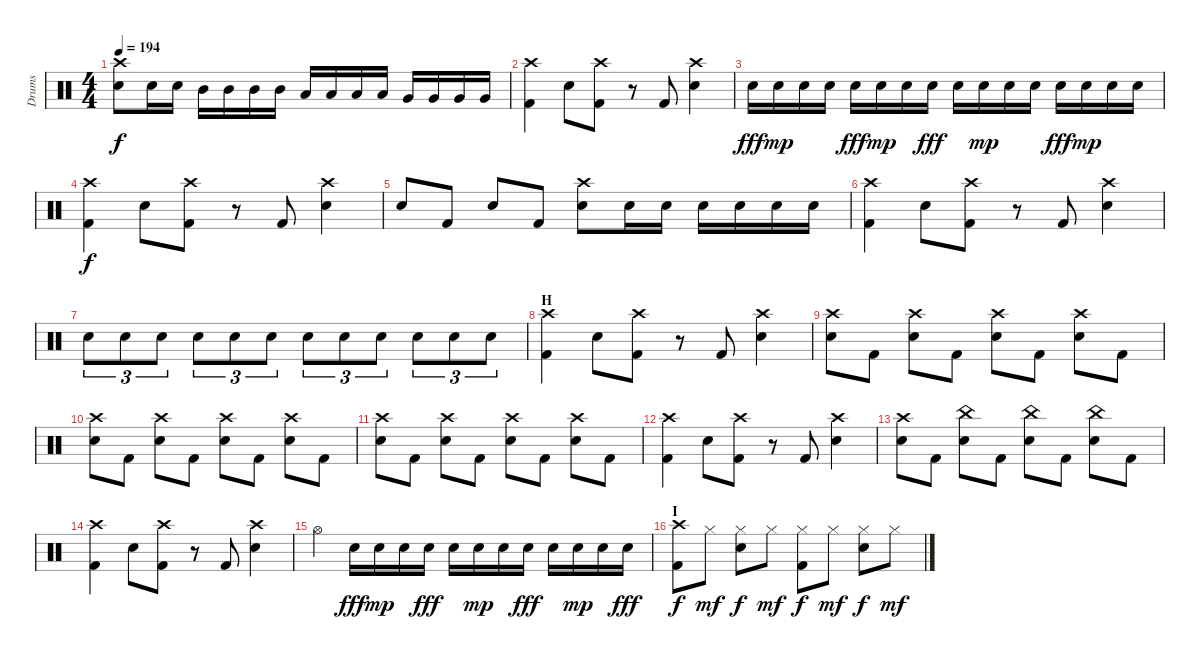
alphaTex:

\track ("Drums" "Drums") {instrument percussion}
\staff {score}
\articulation defaults
\ts (4 4)
\tempo 194
\clef neutral
\ks c
("Crash high (hit)" "Electric Snare (hit)").8{dy f} "Electric Snare (hit)".16 "Electric Snare (hit)".16 "Mid Tom (hit)".16 "Mid Tom (hit)".16 "Mid Tom (hit)".16 "Mid Tom (hit)".16 "Low Tom (hit)".16 "Low Tom (hit)".16 "Low Tom (hit)".16 "Low Tom (hit)".16 "Very Low Tom (hit)".16 "Very Low Tom (hit)".16 "Very Low Tom (hit)".16 "Very Low Tom (hit)".16 |
("Crash high (hit)" "Kick (hit) 2").4 "Electric Snare (hit)".8 ("Crash high (hit)" "Kick (hit) 2").8 r.8 "Kick (hit) 2".8 ("Crash high (hit)" "Electric Snare (hit)").4 |
"Electric Snare (hit)".16{dy fff} "Electric Snare (hit)".16{dy mp} "Electric Snare (hit)".16 "Electric Snare (hit)".16 "Electric Snare (hit)".16{dy fff} "Electric Snare (hit)".16{dy mp} "Electric Snare (hit)".16 "Electric Snare (hit)".16{dy fff} "Electric Snare (hit)".16 "Electric Snare (hit)".16{dy mp} "Electric Snare (hit)".16 "Electric Snare (hit)".16 "Electric Snare (hit)".16{dy fff} "Electric Snare (hit)".16{dy mp} "Electric Snare (hit)".16 "Electric Snare (hit)".16 |
("Crash high (hit)" "Kick (hit) 2").4{dy f} "Electric Snare (hit)".8 ("Crash high (hit)" "Kick (hit) 2").8 r.8 "Kick (hit) 2".8 ("Crash high (hit)" "Electric Snare (hit)").4 |
"Electric Snare (hit)".8 "Kick (hit) 2".8 "Electric Snare (hit)".8 "Kick (hit) 2".8 ("Crash high (hit)" "Electric Snare (hit)").8 "Electric Snare (hit)".16 "Electric Snare (hit)".16 "Electric Snare (hit)".16 "Electric Snare (hit)".16 "Electric Snare (hit)".16 "Electric Snare (hit)".16 |
("Crash high (hit)" "Kick (hit) 2").4 "Electric Snare (hit)".8 ("Crash high (hit)" "Kick (hit) 2").8 r.8 "Kick (hit) 2".8 ("Crash high (hit)" "Electric Snare (hit)").4 |
"Electric Snare (hit)".8{tu (3 2)} "Electric Snare (hit)".8{tu (3 2)} "Electric Snare (hit)".8{tu (3 2)} "Electric Snare (hit)".8{tu (3 2)} "Electric Snare (hit)".8{tu (3 2)} "Electric Snare (hit)".8{tu (3 2)} "Electric Snare (hit)".8{tu (3 2)} "Electric Snare (hit)".8{tu (3 2)} "Electric Snare (hit)".8{tu (3 2)} "Electric Snare (hit)".8{tu (3 2)} "Electric Snare (hit)".8{tu (3 2)} "Electric Snare (hit)".8{tu (3 2)} |
\section ("" "H")
("Crash high (hit)" "Kick (hit) 2").4 "Electric Snare (hit)".8 ("Crash high (hit)" "Kick (hit) 2").8 r.8 "Kick (hit) 2".8 ("Crash high (hit)" "Electric Snare (hit)").4 |
("Crash high (hit)" "Electric Snare (hit)").8 "Kick (hit) 2".8 ("Crash high (hit)" "Electric Snare (hit)").8 "Kick (hit) 2".8 ("Crash high (hit)" "Electric Snare (hit)").8 "Kick (hit) 2".8 ("Crash high (hit)" "Electric Snare (hit)").8 "Kick (hit) 2".8 |
("Crash high (hit)" "Electric Snare (hit)").8 "Kick (hit) 2".8 ("Crash high (hit)" "Electric Snare (hit)").8 "Kick (hit) 2".8 ("Crash high (hit)" "Electric Snare (hit)").8 "Kick (hit) 2".8 ("Crash high (hit)" "Electric Snare (hit)").8 "Kick (hit) 2".8 |
("Crash high (hit)" "Electric Snare (hit)").8 "Kick (hit) 2".8 ("Crash high (hit)" "Electric Snare (hit)").8 "Kick (hit) 2".8 ("Crash high (hit)" "Electric Snare (hit)").8 "Kick (hit) 2".8 ("Crash high (hit)" "Electric Snare (hit)").8 "Kick (hit) 2".8 |
("Crash high (hit)" "Kick (hit) 2").4 "Electric Snare (hit)".8 ("Crash high (hit)" "Kick (hit) 2").8 r.8 "Kick (hit) 2".8 ("Crash high (hit)" "Electric Snare (hit)").4 |
("Crash high (hit)" "Electric Snare (hit)").8 "Kick (hit) 2".8 ("China (hit)" "Electric Snare (hit)").8 "Kick (hit) 2".8 ("China (hit)" "Electric Snare (hit)").8 "Kick (hit) 2".8 ("China (hit)" "Electric Snare (hit)").8 "Kick (hit) 2".8 |
("Crash high (hit)" "Kick (hit) 2").4 "Electric Snare (hit)".8 ("Crash high (hit)" "Kick (hit) 2").8 r.8 "Kick (hit) 2".8 ("Crash high (hit)" "Electric Snare (hit)").4 |
"Hi-Hat (open)".4 "Electric Snare (hit)".16{dy fff} "Electric Snare (hit)".16{dy mp} "Electric Snare (hit)".16 "Electric Snare (hit)".16{dy fff} "Electric Snare (hit)".16 "Electric Snare (hit)".16{dy mp} "Electric Snare (hit)".16 "Electric Snare (hit)".16{dy fff} "Electric Snare (hit)".16 "Electric Snare (hit)".16{dy mp} "Electric Snare (hit)".16 "Electric Snare (hit)".16{dy fff} |
\section ("" "I")
("Crash high (hit)" "Kick (hit) 2").8{dy f} "Hi-Hat (closed)".8{dy mf} ("Hi-Hat (closed)" "Electric Snare (hit)").8{dy f} "Hi-Hat (closed)".8{dy mf} ("Hi-Hat (closed)" "Kick (hit) 2").8{dy f} "Hi-Hat (closed)".8{dy mf} ("Hi-Hat (closed)" "Electric Snare (hit)").8{dy f} "Hi-Hat (closed)".8{dy mf}
